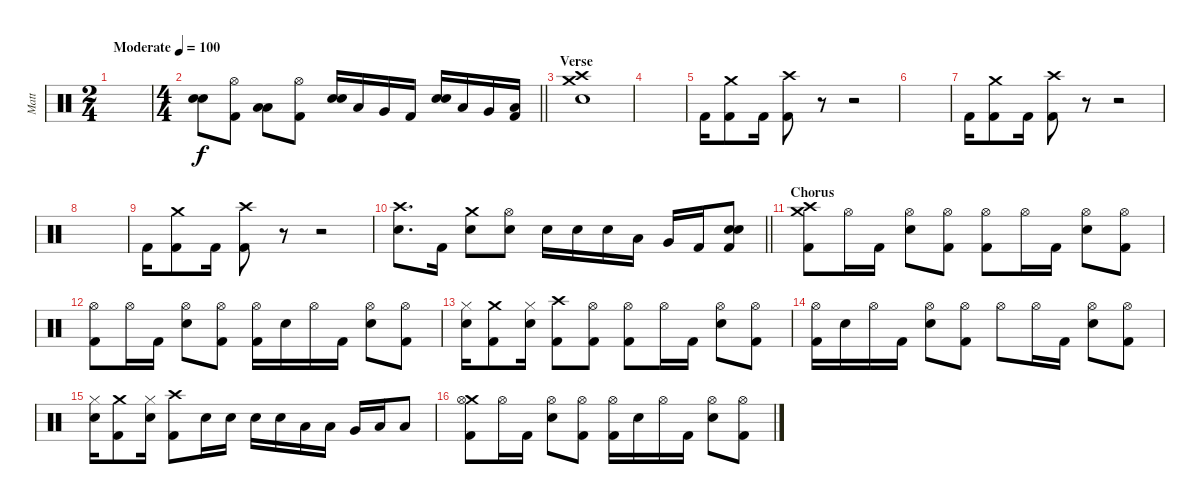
\track ("Matt" "Matt") {instrument percussion}
\staff {score}
\articulation defaults
\ts (2 4)
\tempo (100 "Moderate")
\clef neutral
\ks c
|
\ts (4 4)
\barLineRight lightlight
("Snare (hit) 2" "Snare (hit) 2").8 ("Hi-Hat (open)" "Kick (hit) 2").8 ("Low Tom (hit)" "Low Tom (hit)").8 ("Hi-Hat (open)" "Kick (hit) 2").8 ("Snare (hit) 2" "Snare (hit) 2").16 "Low Tom (hit)".16 "Very Low Tom (hit)".16 "Kick (hit) 2".16 ("Snare (hit) 2" "Snare (hit) 2").16 "Low Tom (hit)".16 "Very Low Tom (hit)".16 ("Low Floor Tom (hit)" "Kick (hit) 2").16 |
\section ("" "Verse")
("Crash medium (hit)" "Crash high (hit)" "Snare (hit) 2").1 |
|
"Kick (hit) 2".16 ("Crash medium (hit)" "Kick (hit) 2").8 "Kick (hit) 2".16 ("Crash high (hit)" "Kick (hit) 2").8 r.8 r.2 |
|
"Kick (hit) 2".16 ("Crash medium (hit)" "Kick (hit) 2").8 "Kick (hit) 2".16 ("Crash high (hit)" "Kick (hit) 2").8 r.8 r.2 |
|
"Kick (hit) 2".16 ("Crash medium (hit)" "Kick (hit) 2").8 "Kick (hit) 2".16 ("Crash high (hit)" "Kick (hit) 2").8 r.8 r.2 |
\barLineRight lightlight
("Crash high (hit)" "Snare (hit) 2").8{d} "Kick (hit) 2".16 ("Crash medium (hit)" "Snare (hit) 2").8 ("Hi-Hat (open)" "Snare (hit) 2").8 "Snare (hit) 2".16 "Snare (hit) 2".16 "Snare (hit) 2".16 "Low Tom (hit)".16 "Very Low Tom (hit)".16 "Kick (hit) 2".16 ("Kick (hit) 2" "Snare (hit) 2" "Snare (hit) 2").8 |
\section ("" "Chorus")
("Crash medium (hit)" "Crash high (hit)" "Kick (hit) 2").8 "Hi-Hat (open)".16 "Kick (hit) 2".16 ("Hi-Hat (open)" "Snare (hit) 2").8 ("Hi-Hat (open)" "Kick (hit) 2").8 ("Hi-Hat (open)" "Kick (hit) 2").8 "Hi-Hat (open)".16 "Kick (hit) 2".16 ("Hi-Hat (open)" "Snare (hit) 2").8 ("Hi-Hat (open)" "Kick (hit) 2").8 |
("Hi-Hat (open)" "Kick (hit) 2").8 "Hi-Hat (open)".16 "Kick (hit) 2".16 ("Hi-Hat (open)" "Snare (hit) 2").8 ("Hi-Hat (open)" "Kick (hit) 2").8 ("Hi-Hat (open)" "Kick (hit) 2").16 "Snare (hit) 2".16 "Hi-Hat (open)".16 "Kick (hit) 2".16 ("Hi-Hat (open)" "Snare (hit) 2").8 ("Hi-Hat (open)" "Kick (hit) 2").8 |
("Hi-Hat (closed)" "Snare (hit) 2").16 ("Crash medium (hit)" "Kick (hit) 2").8 ("Hi-Hat (closed)" "Snare (hit) 2").16 ("Crash high (hit)" "Kick (hit) 2").8 ("Hi-Hat (open)" "Kick (hit) 2").8 ("Hi-Hat (open)" "Kick (hit) 2").8 "Hi-Hat (open)".16 "Kick (hit) 2".16 ("Hi-Hat (open)" "Snare (hit) 2").8 ("Hi-Hat (open)" "Kick (hit) 2").8 |
("Hi-Hat (open)" "Kick (hit) 2").16 "Snare (hit) 2".16 "Hi-Hat (open)".16 "Kick (hit) 2".16 ("Hi-Hat (open)" "Snare (hit) 2").8 ("Hi-Hat (open)" "Kick (hit) 2").8 "Hi-Hat (open)".8 "Hi-Hat (open)".16 "Kick (hit) 2".16 ("Hi-Hat (open)" "Snare (hit) 2").8 ("Hi-Hat (open)" "Kick (hit) 2").8 |
("Hi-Hat (closed)" "Snare (hit) 2").16 ("Crash medium (hit)" "Kick (hit) 2").8 ("Hi-Hat (closed)" "Snare (hit) 2").16 ("Crash high (hit)" "Kick (hit) 2").8 "Snare (hit) 2".16 "Snare (hit) 2".16 "Snare (hit) 2".16 "Snare (hit) 2".16 "Low Tom (hit)".16 "Low Tom (hit)".16 "Very Low Tom (hit)".16 "Low Floor Tom (hit)".16 "Low Floor Tom (hit)".8 |
("Crash medium (hit)" "Hi-Hat (open)" "Kick (hit) 2").8 "Hi-Hat (open)".16 "Kick (hit) 2".16 ("Hi-Hat (open)" "Snare (hit) 2").8 ("Hi-Hat (open)" "Kick (hit) 2").8 ("Hi-Hat (open)" "Kick (hit) 2").16 "Snare (hit) 2".16 "Hi-Hat (open)".16 "Kick (hit) 2".16 ("Hi-Hat (open)" "Snare (hit) 2").8 ("Hi-Hat (open)" "Kick (hit) 2").8
